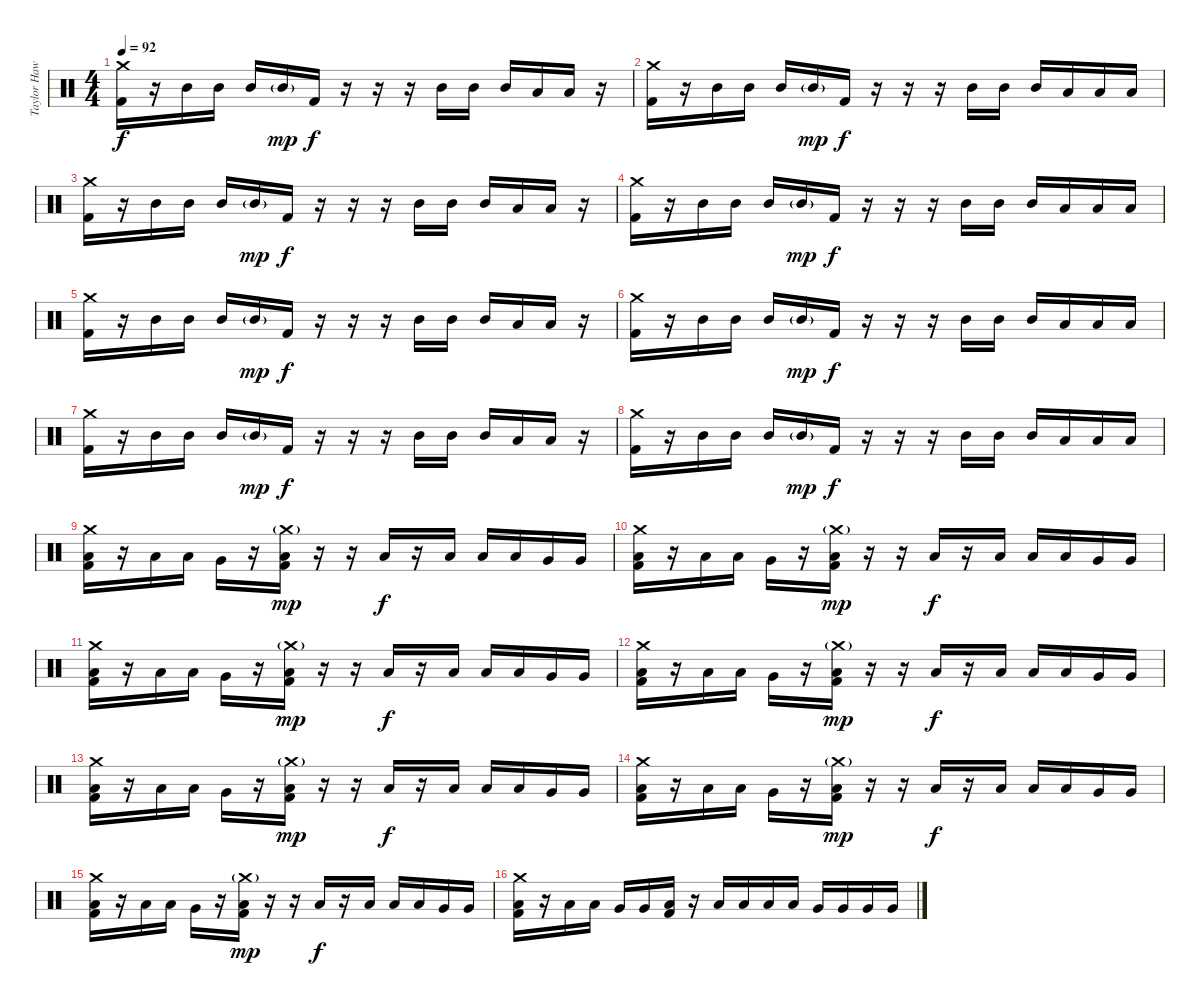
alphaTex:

\track ("Taylor Hawkins (Drums)" "Taylor Haw") {instrument percussion}
\staff {score}
\articulation defaults
\ts (4 4)
\tempo 92
\clef neutral
\ks c
("Crash medium (hit)" "Kick (hit) 2").16{dy f} r.16 "Mid Tom (hit)".16 "Mid Tom (hit)".16 "Mid Tom (hit)".16 "Mid Tom (hit)"{g}.16{dy mp} "Kick (hit) 2".16{dy f} r.16 r.16 r.16 "Mid Tom (hit)".16 "Mid Tom (hit)".16 "Mid Tom (hit)".16 "Low Tom (hit)".16 "Low Tom (hit)".16 r.16 |
("Crash medium (hit)" "Kick (hit) 2").16 r.16 "Mid Tom (hit)".16 "Mid Tom (hit)".16 "Mid Tom (hit)".16 "Mid Tom (hit)"{g}.16{dy mp} "Kick (hit) 2".16{dy f} r.16 r.16 r.16 "Mid Tom (hit)".16 "Mid Tom (hit)".16 "Mid Tom (hit)".16 "Low Tom (hit)".16 "Low Tom (hit)".16 "Low Tom (hit)".16 |
("Crash medium (hit)" "Kick (hit) 2").16 r.16 "Mid Tom (hit)".16 "Mid Tom (hit)".16 "Mid Tom (hit)".16 "Mid Tom (hit)"{g}.16{dy mp} "Kick (hit) 2".16{dy f} r.16 r.16 r.16 "Mid Tom (hit)".16 "Mid Tom (hit)".16 "Mid Tom (hit)".16 "Low Tom (hit)".16 "Low Tom (hit)".16 r.16 |
("Crash medium (hit)" "Kick (hit) 2").16 r.16 "Mid Tom (hit)".16 "Mid Tom (hit)".16 "Mid Tom (hit)".16 "Mid Tom (hit)"{g}.16{dy mp} "Kick (hit) 2".16{dy f} r.16 r.16 r.16 "Mid Tom (hit)".16 "Mid Tom (hit)".16 "Mid Tom (hit)".16 "Low Tom (hit)".16 "Low Tom (hit)".16 "Low Tom (hit)".16 |
("Crash medium (hit)" "Kick (hit) 2").16 r.16 "Mid Tom (hit)".16 "Mid Tom (hit)".16 "Mid Tom (hit)".16 "Mid Tom (hit)"{g}.16{dy mp} "Kick (hit) 2".16{dy f} r.16 r.16 r.16 "Mid Tom (hit)".16 "Mid Tom (hit)".16 "Mid Tom (hit)".16 "Low Tom (hit)".16 "Low Tom (hit)".16 r.16 |
("Crash medium (hit)" "Kick (hit) 2").16 r.16 "Mid Tom (hit)".16 "Mid Tom (hit)".16 "Mid Tom (hit)".16 "Mid Tom (hit)"{g}.16{dy mp} "Kick (hit) 2".16{dy f} r.16 r.16 r.16 "Mid Tom (hit)".16 "Mid Tom (hit)".16 "Mid Tom (hit)".16 "Low Tom (hit)".16 "Low Tom (hit)".16 "Low Tom (hit)".16 |
("Crash medium (hit)" "Kick (hit) 2").16 r.16 "Mid Tom (hit)".16 "Mid Tom (hit)".16 "Mid Tom (hit)".16 "Mid Tom (hit)"{g}.16{dy mp} "Kick (hit) 2".16{dy f} r.16 r.16 r.16 "Mid Tom (hit)".16 "Mid Tom (hit)".16 "Mid Tom (hit)".16 "Low Tom (hit)".16 "Low Tom (hit)".16 r.16 |
("Crash medium (hit)" "Kick (hit) 2").16 r.16 "Mid Tom (hit)".16 "Mid Tom (hit)".16 "Mid Tom (hit)".16 "Mid Tom (hit)"{g}.16{dy mp} "Kick (hit) 2".16{dy f} r.16 r.16 r.16 "Mid Tom (hit)".16 "Mid Tom (hit)".16 "Mid Tom (hit)".16 "Low Tom (hit)".16 "Low Tom (hit)".16 "Low Tom (hit)".16 |
("Crash medium (hit)" "Low Tom (hit)" "Kick (hit) 2").16 r.16 "Low Tom (hit)".16 "Low Tom (hit)".16 "Very Low Tom (hit)".16 r.16 ("Crash medium (hit)"{g} "Low Tom (hit)" "Kick (hit) 2").16{dy mp} r.16 r.16 "Low Tom (hit)".16{dy f} r.16 "Low Tom (hit)".16 "Low Tom (hit)".16 "Low Tom (hit)".16 "Very Low Tom (hit)".16 "Very Low Tom (hit)".16 |
("Crash medium (hit)" "Low Tom (hit)" "Kick (hit) 2").16 r.16 "Low Tom (hit)".16 "Low Tom (hit)".16 "Very Low Tom (hit)".16 r.16 ("Crash medium (hit)"{g} "Low Tom (hit)" "Kick (hit) 2").16{dy mp} r.16 r.16 "Low Tom (hit)".16{dy f} r.16 "Low Tom (hit)".16 "Low Tom (hit)".16 "Low Tom (hit)".16 "Very Low Tom (hit)".16 "Very Low Tom (hit)".16 |
("Crash medium (hit)" "Low Tom (hit)" "Kick (hit) 2").16 r.16 "Low Tom (hit)".16 "Low Tom (hit)".16 "Very Low Tom (hit)".16 r.16 ("Crash medium (hit)"{g} "Low Tom (hit)" "Kick (hit) 2").16{dy mp} r.16 r.16 "Low Tom (hit)".16{dy f} r.16 "Low Tom (hit)".16 "Low Tom (hit)".16 "Low Tom (hit)".16 "Very Low Tom (hit)".16 "Very Low Tom (hit)".16 |
("Crash medium (hit)" "Low Tom (hit)" "Kick (hit) 2").16 r.16 "Low Tom (hit)".16 "Low Tom (hit)".16 "Very Low Tom (hit)".16 r.16 ("Crash medium (hit)"{g} "Low Tom (hit)" "Kick (hit) 2").16{dy mp} r.16 r.16 "Low Tom (hit)".16{dy f} r.16 "Low Tom (hit)".16 "Low Tom (hit)".16 "Low Tom (hit)".16 "Very Low Tom (hit)".16 "Very Low Tom (hit)".16 |
("Crash medium (hit)" "Low Tom (hit)" "Kick (hit) 2").16 r.16 "Low Tom (hit)".16 "Low Tom (hit)".16 "Very Low Tom (hit)".16 r.16 ("Crash medium (hit)"{g} "Low Tom (hit)" "Kick (hit) 2").16{dy mp} r.16 r.16 "Low Tom (hit)".16{dy f} r.16 "Low Tom (hit)".16 "Low Tom (hit)".16 "Low Tom (hit)".16 "Very Low Tom (hit)".16 "Very Low Tom (hit)".16 |
("Crash medium (hit)" "Low Tom (hit)" "Kick (hit) 2").16 r.16 "Low Tom (hit)".16 "Low Tom (hit)".16 "Very Low Tom (hit)".16 r.16 ("Crash medium (hit)"{g} "Low Tom (hit)" "Kick (hit) 2").16{dy mp} r.16 r.16 "Low Tom (hit)".16{dy f} r.16 "Low Tom (hit)".16 "Low Tom (hit)".16 "Low Tom (hit)".16 "Very Low Tom (hit)".16 "Very Low Tom (hit)".16 |
("Crash medium (hit)" "Low Tom (hit)" "Kick (hit) 2").16 r.16 "Low Tom (hit)".16 "Low Tom (hit)".16 "Very Low Tom (hit)".16 r.16 ("Crash medium (hit)"{g} "Low Tom (hit)" "Kick (hit) 2").16{dy mp} r.16 r.16 "Low Tom (hit)".16{dy f} r.16 "Low Tom (hit)".16 "Low Tom (hit)".16 "Low Tom (hit)".16 "Very Low Tom (hit)".16 "Very Low Tom (hit)".16 |
("Crash medium (hit)" "Low Tom (hit)" "Kick (hit) 2").16 r.16 "Low Tom (hit)".16 "Low Tom (hit)".16 "Very Low Tom (hit)".16 "Very Low Tom (hit)".16 ("Low Tom (hit)" "Kick (hit) 2").16 r.16 "Low Tom (hit)".16 "Low Tom (hit)".16 "Low Tom (hit)".16 "Low Tom (hit)".16 "Very Low Tom (hit)".16 "Very Low Tom (hit)".16 "Very Low Tom (hit)".16 "Very Low Tom (hit)".16
